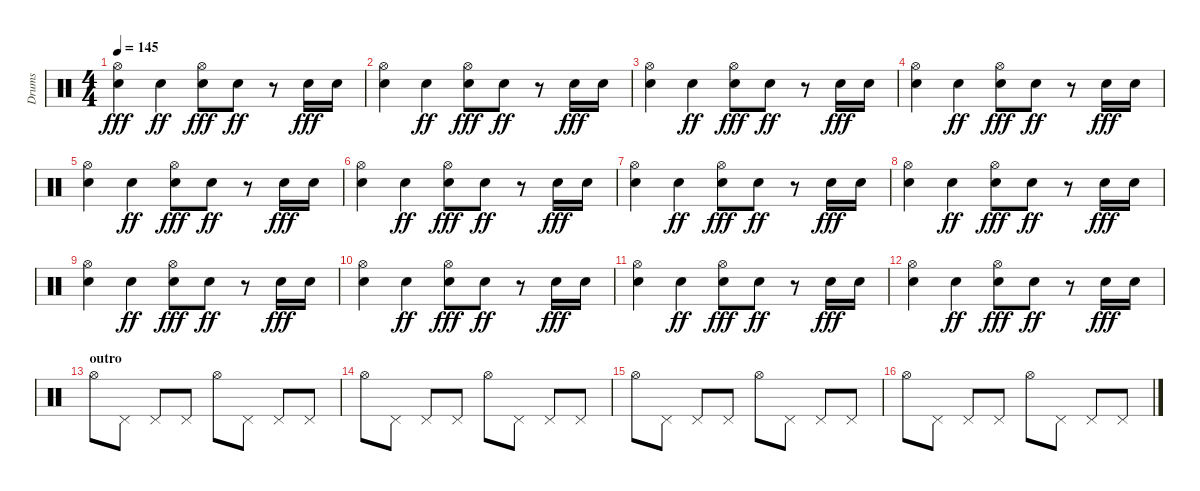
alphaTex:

\track ("Drums" "Drums") {instrument percussion}
\staff {score}
\articulation defaults
\ts (4 4)
\tempo 145
\clef neutral
\ks c
("Electric Snare (hit)" "Hi-Hat (open)").4{dy fff} "Electric Snare (hit)".4{dy ff} ("Electric Snare (hit)" "Hi-Hat (open)").8{dy fff} "Electric Snare (hit)".8{dy ff} r.8 "Electric Snare (hit)".16{dy fff} "Electric Snare (hit)".16 |
("Electric Snare (hit)" "Hi-Hat (open)").4 "Electric Snare (hit)".4{dy ff} ("Electric Snare (hit)" "Hi-Hat (open)").8{dy fff} "Electric Snare (hit)".8{dy ff} r.8 "Electric Snare (hit)".16{dy fff} "Electric Snare (hit)".16 |
("Electric Snare (hit)" "Hi-Hat (open)").4 "Electric Snare (hit)".4{dy ff} ("Electric Snare (hit)" "Hi-Hat (open)").8{dy fff} "Electric Snare (hit)".8{dy ff} r.8 "Electric Snare (hit)".16{dy fff} "Electric Snare (hit)".16 |
("Electric Snare (hit)" "Hi-Hat (open)").4 "Electric Snare (hit)".4{dy ff} ("Electric Snare (hit)" "Hi-Hat (open)").8{dy fff} "Electric Snare (hit)".8{dy ff} r.8 "Electric Snare (hit)".16{dy fff} "Electric Snare (hit)".16 |
("Electric Snare (hit)" "Hi-Hat (open)").4 "Electric Snare (hit)".4{dy ff} ("Electric Snare (hit)" "Hi-Hat (open)").8{dy fff} "Electric Snare (hit)".8{dy ff} r.8 "Electric Snare (hit)".16{dy fff} "Electric Snare (hit)".16 |
("Electric Snare (hit)" "Hi-Hat (open)").4 "Electric Snare (hit)".4{dy ff} ("Electric Snare (hit)" "Hi-Hat (open)").8{dy fff} "Electric Snare (hit)".8{dy ff} r.8 "Electric Snare (hit)".16{dy fff} "Electric Snare (hit)".16 |
("Electric Snare (hit)" "Hi-Hat (open)").4 "Electric Snare (hit)".4{dy ff} ("Electric Snare (hit)" "Hi-Hat (open)").8{dy fff} "Electric Snare (hit)".8{dy ff} r.8 "Electric Snare (hit)".16{dy fff} "Electric Snare (hit)".16 |
("Electric Snare (hit)" "Hi-Hat (open)").4 "Electric Snare (hit)".4{dy ff} ("Electric Snare (hit)" "Hi-Hat (open)").8{dy fff} "Electric Snare (hit)".8{dy ff} r.8 "Electric Snare (hit)".16{dy fff} "Electric Snare (hit)".16 |
("Electric Snare (hit)" "Hi-Hat (open)").4 "Electric Snare (hit)".4{dy ff} ("Electric Snare (hit)" "Hi-Hat (open)").8{dy fff} "Electric Snare (hit)".8{dy ff} r.8 "Electric Snare (hit)".16{dy fff} "Electric Snare (hit)".16 |
("Electric Snare (hit)" "Hi-Hat (open)").4 "Electric Snare (hit)".4{dy ff} ("Electric Snare (hit)" "Hi-Hat (open)").8{dy fff} "Electric Snare (hit)".8{dy ff} r.8 "Electric Snare (hit)".16{dy fff} "Electric Snare (hit)".16 |
("Electric Snare (hit)" "Hi-Hat (open)").4 "Electric Snare (hit)".4{dy ff} ("Electric Snare (hit)" "Hi-Hat (open)").8{dy fff} "Electric Snare (hit)".8{dy ff} r.8 "Electric Snare (hit)".16{dy fff} "Electric Snare (hit)".16 |
("Electric Snare (hit)" "Hi-Hat (open)").4 "Electric Snare (hit)".4{dy ff} ("Electric Snare (hit)" "Hi-Hat (open)").8{dy fff} "Electric Snare (hit)".8{dy ff} r.8 "Electric Snare (hit)".16{dy fff} "Electric Snare (hit)".16 |
\section ("" "outro")
"Hi-Hat (open)".8 "Pedal Hi-Hat (hit)".8 "Pedal Hi-Hat (hit)".8 "Pedal Hi-Hat (hit)".8 "Hi-Hat (open)".8 "Pedal Hi-Hat (hit)".8 "Pedal Hi-Hat (hit)".8 "Pedal Hi-Hat (hit)".8 |
"Hi-Hat (open)".8 "Pedal Hi-Hat (hit)".8 "Pedal Hi-Hat (hit)".8 "Pedal Hi-Hat (hit)".8 "Hi-Hat (open)".8 "Pedal Hi-Hat (hit)".8 "Pedal Hi-Hat (hit)".8 "Pedal Hi-Hat (hit)".8 |
"Hi-Hat (open)".8 "Pedal Hi-Hat (hit)".8 "Pedal Hi-Hat (hit)".8 "Pedal Hi-Hat (hit)".8 "Hi-Hat (open)".8 "Pedal Hi-Hat (hit)".8 "Pedal Hi-Hat (hit)".8 "Pedal Hi-Hat (hit)".8 |
"Hi-Hat (open)".8 "Pedal Hi-Hat (hit)".8 "Pedal Hi-Hat (hit)".8 "Pedal Hi-Hat (hit)".8 "Hi-Hat (open)".8 "Pedal Hi-Hat (hit)".8 "Pedal Hi-Hat (hit)".8 "Pedal Hi-Hat (hit)".8
